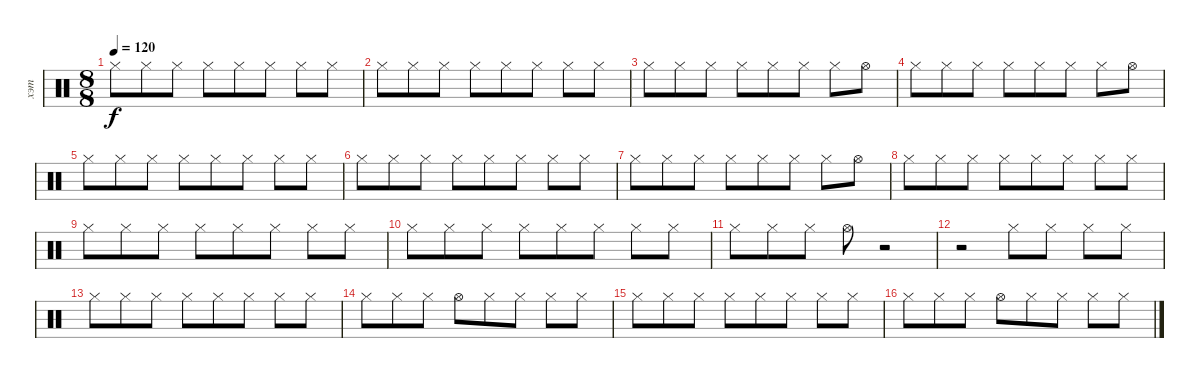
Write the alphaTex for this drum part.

\track ("хэт" "хэт") {instrument percussion}
\staff {score}
\articulation defaults
\ts (8 8)
\tempo 120
\clef neutral
\ks c "Hi-Hat (closed)".8{dy f} "Hi-Hat (closed)".8 "Hi-Hat (closed)".8 "Hi-Hat (closed)".8 "Hi-Hat (closed)".8 "Hi-Hat (closed)".8 "Hi-Hat (closed)".8 "Hi-Hat (closed)".8
|
"Hi-Hat (closed)".8 "Hi-Hat (closed)".8 "Hi-Hat (closed)".8 "Hi-Hat (closed)".8 "Hi-Hat (closed)".8 "Hi-Hat (closed)".8 "Hi-Hat (closed)".8 "Hi-Hat (closed)".8 |
"Hi-Hat (closed)".8 "Hi-Hat (closed)".8 "Hi-Hat (closed)".8 "Hi-Hat (closed)".8 "Hi-Hat (closed)".8 "Hi-Hat (closed)".8 "Hi-Hat (closed)".8 "Hi-Hat (open)".8 |
"Hi-Hat (closed)".8 "Hi-Hat (closed)".8 "Hi-Hat (closed)".8 "Hi-Hat (closed)".8 "Hi-Hat (closed)".8 "Hi-Hat (closed)".8 "Hi-Hat (closed)".8 "Hi-Hat (open)".8 |
"Hi-Hat (closed)".8 "Hi-Hat (closed)".8 "Hi-Hat (closed)".8 "Hi-Hat (closed)".8 "Hi-Hat (closed)".8 "Hi-Hat (closed)".8 "Hi-Hat (closed)".8 "Hi-Hat (closed)".8 |
"Hi-Hat (closed)".8 "Hi-Hat (closed)".8 "Hi-Hat (closed)".8 "Hi-Hat (closed)".8 "Hi-Hat (closed)".8 "Hi-Hat (closed)".8 "Hi-Hat (closed)".8 "Hi-Hat (closed)".8 |
"Hi-Hat (closed)".8 "Hi-Hat (closed)".8 "Hi-Hat (closed)".8 "Hi-Hat (closed)".8 "Hi-Hat (closed)".8 "Hi-Hat (closed)".8 "Hi-Hat (closed)".8 "Hi-Hat (open)".8 |
"Hi-Hat (closed)".8 "Hi-Hat (closed)".8 "Hi-Hat (closed)".8 "Hi-Hat (closed)".8 "Hi-Hat (closed)".8 "Hi-Hat (closed)".8 "Hi-Hat (closed)".8 "Hi-Hat (closed)".8 |
"Hi-Hat (closed)".8 "Hi-Hat (closed)".8 "Hi-Hat (closed)".8 "Hi-Hat (closed)".8 "Hi-Hat (closed)".8 "Hi-Hat (closed)".8 "Hi-Hat (closed)".8 "Hi-Hat (closed)".8 |
"Hi-Hat (closed)".8 "Hi-Hat (closed)".8 "Hi-Hat (closed)".8 "Hi-Hat (closed)".8 "Hi-Hat (closed)".8 "Hi-Hat (closed)".8 "Hi-Hat (closed)".8 "Hi-Hat (closed)".8 |
"Hi-Hat (closed)".8 "Hi-Hat (closed)".8 "Hi-Hat (closed)".8 "Hi-Hat (open)".8 r.2 |
r.2 "Hi-Hat (closed)".8 "Hi-Hat (closed)".8 "Hi-Hat (closed)".8 "Hi-Hat (closed)".8 |
"Hi-Hat (closed)".8 "Hi-Hat (closed)".8 "Hi-Hat (closed)".8 "Hi-Hat (closed)".8 "Hi-Hat (closed)".8 "Hi-Hat (closed)".8 "Hi-Hat (closed)".8 "Hi-Hat (closed)".8 |
"Hi-Hat (closed)".8 "Hi-Hat (closed)".8 "Hi-Hat (closed)".8 "Hi-Hat (open)".8 "Hi-Hat (closed)".8 "Hi-Hat (closed)".8 "Hi-Hat (closed)".8 "Hi-Hat (closed)".8 |
"Hi-Hat (closed)".8 "Hi-Hat (closed)".8 "Hi-Hat (closed)".8 "Hi-Hat (closed)".8 "Hi-Hat (closed)".8 "Hi-Hat (closed)".8 "Hi-Hat (closed)".8 "Hi-Hat (closed)".8 |
"Hi-Hat (closed)".8 "Hi-Hat (closed)".8 "Hi-Hat (closed)".8 "Hi-Hat (open)".8 "Hi-Hat (closed)".8 "Hi-Hat (closed)".8 "Hi-Hat (closed)".8 "Hi-Hat (closed)".8
